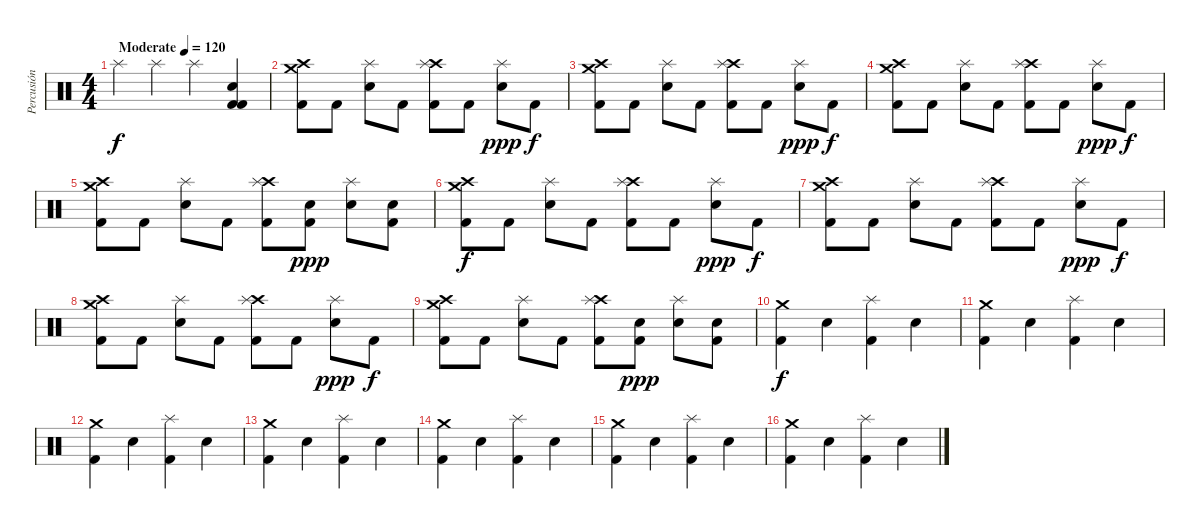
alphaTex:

\track ("Percusión" "Percusión") {instrument percussion}
\staff {score}
\articulation defaults
\ts (4 4)
\tempo (120 "Moderate")
\clef neutral
\ks c "Splash (hit)".4{dy f} "Splash (hit)".4 "Splash (hit)".4
("Kick (hit) 2" "Kick (hit) 2" "Snare (hit) 2").4 |
("Kick (hit) 2" "Crash high (hit)" "Crash medium (hit)").8 "Kick (hit) 2".8 ("Snare (hit) 2" "Splash (hit)").8 "Kick (hit) 2".8 ("Kick (hit) 2" "Crash high (hit)" "Splash (hit)").8 "Kick (hit) 2".8 ("Snare (hit) 2" "Splash (hit)").8{dy ppp} "Kick (hit) 2".8{dy f} |
("Kick (hit) 2" "Crash high (hit)" "Crash medium (hit)").8 "Kick (hit) 2".8 ("Snare (hit) 2" "Splash (hit)").8 "Kick (hit) 2".8 ("Kick (hit) 2" "Crash high (hit)" "Splash (hit)").8 "Kick (hit) 2".8 ("Snare (hit) 2" "Splash (hit)").8{dy ppp} "Kick (hit) 2".8{dy f} |
("Kick (hit) 2" "Crash high (hit)" "Crash medium (hit)").8 "Kick (hit) 2".8 ("Snare (hit) 2" "Splash (hit)").8 "Kick (hit) 2".8 ("Kick (hit) 2" "Crash high (hit)" "Splash (hit)").8 "Kick (hit) 2".8 ("Snare (hit) 2" "Splash (hit)").8{dy ppp} "Kick (hit) 2".8{dy f} |
("Kick (hit) 2" "Crash high (hit)" "Crash medium (hit)").8 "Kick (hit) 2".8 ("Snare (hit) 2" "Splash (hit)").8 "Kick (hit) 2".8 ("Kick (hit) 2" "Crash high (hit)" "Splash (hit)").8 ("Kick (hit) 2" "Snare (hit) 2").8{dy ppp} ("Snare (hit) 2" "Splash (hit)").8 ("Kick (hit) 2" "Snare (hit) 2").8 |
("Kick (hit) 2" "Crash high (hit)" "Crash medium (hit)").8{dy f} "Kick (hit) 2".8 ("Snare (hit) 2" "Splash (hit)").8 "Kick (hit) 2".8 ("Kick (hit) 2" "Crash high (hit)" "Splash (hit)").8 "Kick (hit) 2".8 ("Snare (hit) 2" "Splash (hit)").8{dy ppp} "Kick (hit) 2".8{dy f} |
("Kick (hit) 2" "Crash high (hit)" "Crash medium (hit)").8 "Kick (hit) 2".8 ("Snare (hit) 2" "Splash (hit)").8 "Kick (hit) 2".8 ("Kick (hit) 2" "Crash high (hit)" "Splash (hit)").8 "Kick (hit) 2".8 ("Snare (hit) 2" "Splash (hit)").8{dy ppp} "Kick (hit) 2".8{dy f} |
("Kick (hit) 2" "Crash high (hit)" "Crash medium (hit)").8 "Kick (hit) 2".8 ("Snare (hit) 2" "Splash (hit)").8 "Kick (hit) 2".8 ("Kick (hit) 2" "Crash high (hit)" "Splash (hit)").8 "Kick (hit) 2".8 ("Snare (hit) 2" "Splash (hit)").8{dy ppp} "Kick (hit) 2".8{dy f} |
("Kick (hit) 2" "Crash high (hit)" "Crash medium (hit)").8 "Kick (hit) 2".8 ("Snare (hit) 2" "Splash (hit)").8 "Kick (hit) 2".8 ("Kick (hit) 2" "Crash high (hit)" "Splash (hit)").8 ("Kick (hit) 2" "Snare (hit) 2").8{dy ppp} ("Snare (hit) 2" "Splash (hit)").8 ("Kick (hit) 2" "Snare (hit) 2").8 |
("Kick (hit) 2" "Crash medium (hit)").4{dy f} "Snare (hit) 2".4 ("Kick (hit) 2" "Splash (hit)").4 "Snare (hit) 2".4 |
("Kick (hit) 2" "Crash medium (hit)").4 "Snare (hit) 2".4 ("Kick (hit) 2" "Splash (hit)").4 "Snare (hit) 2".4 |
("Kick (hit) 2" "Crash medium (hit)").4 "Snare (hit) 2".4 ("Kick (hit) 2" "Splash (hit)").4 "Snare (hit) 2".4 |
("Kick (hit) 2" "Crash medium (hit)").4 "Snare (hit) 2".4 ("Kick (hit) 2" "Splash (hit)").4 "Snare (hit) 2".4 |
("Kick (hit) 2" "Crash medium (hit)").4 "Snare (hit) 2".4 ("Kick (hit) 2" "Splash (hit)").4 "Snare (hit) 2".4 |
("Kick (hit) 2" "Crash medium (hit)").4 "Snare (hit) 2".4 ("Kick (hit) 2" "Splash (hit)").4 "Snare (hit) 2".4 |
("Kick (hit) 2" "Crash medium (hit)").4 "Snare (hit) 2".4 ("Kick (hit) 2" "Splash (hit)").4 "Snare (hit) 2".4
